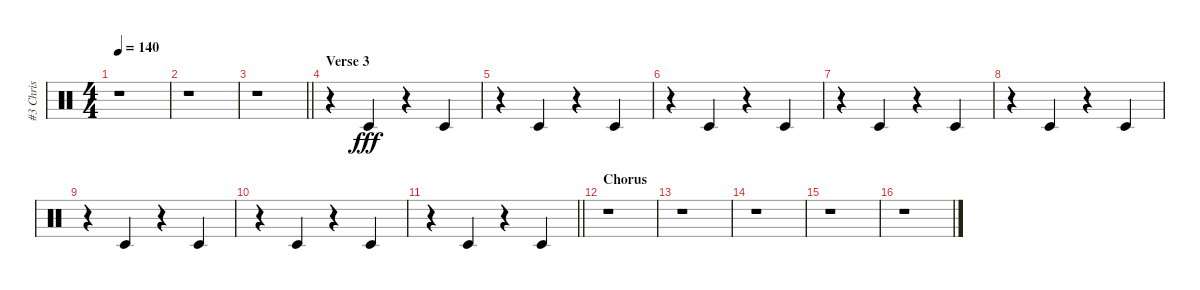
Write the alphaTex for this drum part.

\track ("#3 Chris" "#3 Chris") {solo instrument percussion}
\staff {score}
\articulation defaults
\ts (4 4)
\tempo 140
\clef neutral
\ks c
r.1{dy fff} |
r.1 |
\barLineRight lightlight
r.1 |
\section ("" "Verse 3")
r.4 "Timbale low (hit)".4 r.4 "Timbale low (hit)".4 |
r.4 "Timbale low (hit)".4 r.4 "Timbale low (hit)".4 |
r.4 "Timbale low (hit)".4 r.4 "Timbale low (hit)".4 |
r.4 "Timbale low (hit)".4 r.4 "Timbale low (hit)".4 |
r.4 "Timbale low (hit)".4 r.4 "Timbale low (hit)".4 |
r.4 "Timbale low (hit)".4 r.4 "Timbale low (hit)".4 |
r.4 "Timbale low (hit)".4 r.4 "Timbale low (hit)".4 |
\barLineRight lightlight
r.4 "Timbale low (hit)".4 r.4 "Timbale low (hit)".4 |
\section ("" "Chorus")
r.1 |
r.1 |
r.1 |
r.1 |
r.1
